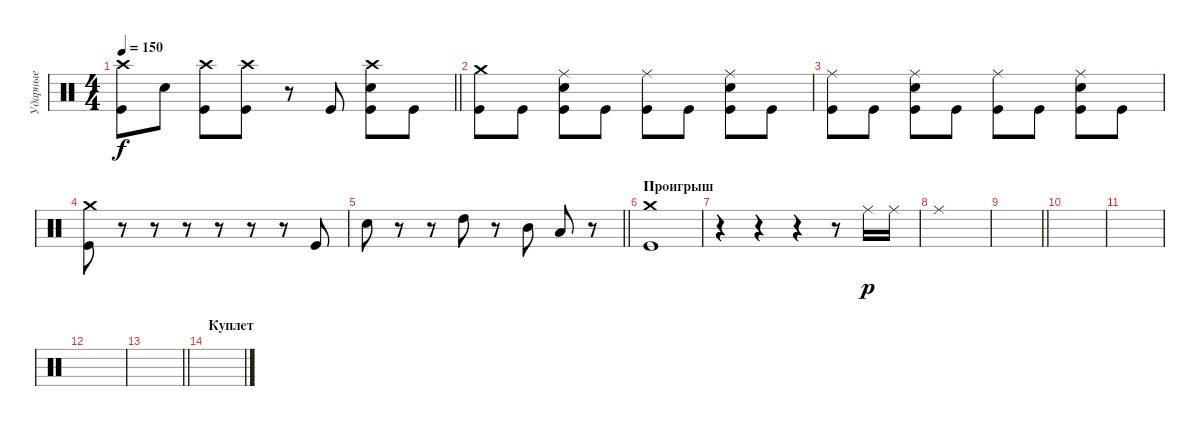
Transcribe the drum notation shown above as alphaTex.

\track ("Ударные" "Ударные") {instrument percussion}
\staff {score}
\articulation defaults
\ts (4 4)
\tempo 150
\clef neutral
\barLineRight lightlight
\ks c
("Crash high (hit)" "Kick (hit)").8{dy f} "Electric Snare (hit)".8 ("Crash high (hit)" "Kick (hit)").8 ("Crash high (hit)" "Kick (hit)").8 r.8 "Kick (hit)".8 ("Crash high (hit)" "Electric Snare (hit)" "Kick (hit)").8 "Kick (hit)".8 |
\section ("" " ")
("Crash medium (hit)" "Kick (hit)").8 "Kick (hit)".8 ("Ride (middle)" "Electric Snare (hit)" "Kick (hit)").8 "Kick (hit)".8 ("Ride (middle)" "Kick (hit)").8 "Kick (hit)".8 ("Ride (middle)" "Electric Snare (hit)" "Kick (hit)").8 "Kick (hit)".8 |
("Ride (middle)" "Kick (hit)").8 "Kick (hit)".8 ("Ride (middle)" "Electric Snare (hit)" "Kick (hit)").8 "Kick (hit)".8 ("Ride (middle)" "Kick (hit)").8 "Kick (hit)".8 ("Ride (middle)" "Electric Snare (hit)" "Kick (hit)").8 "Kick (hit)".8 |
("Crash medium (hit)" "Kick (hit)").8 r.8 r.8 r.8 r.8 r.8 r.8 "Kick (hit)".8 |
\barLineRight lightlight "Electric Snare (hit)".8
r.8 r.8 "High Tom (hit)".8 r.8 "Mid Tom (hit)".8 "Low Tom (hit)".8 r.8 |
\section ("" "Проигрыш")
("Crash medium (hit)" "Kick (hit)").1 |
r.4 r.4 r.4 r.8 "Ride (middle)".16{dy p} "Ride (middle)".16 |
"Ride (middle)".1 |
\barLineRight lightlight
|
|
|
|
\barLineRight lightlight
|
\section ("" "Куплет")
